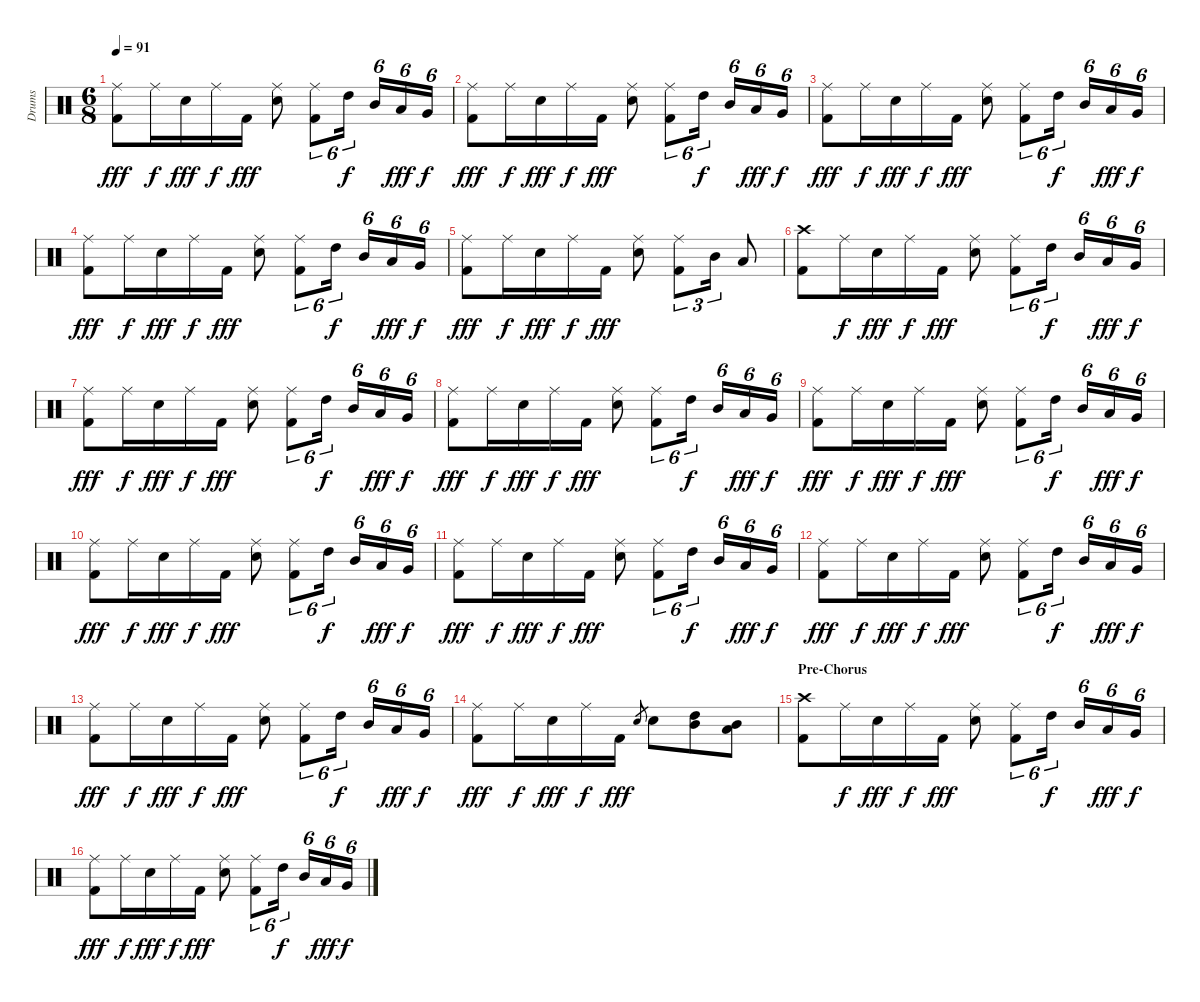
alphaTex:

\track ("Drums" "Drums") {instrument percussion}
\staff {score}
\articulation defaults
\ts (6 8)
\tempo 91
\clef neutral
\ks c
("Ride (middle)" "Kick (hit) 2").8{dy fff} "Ride (middle)".16{dy f} "Electric Snare (hit)".16{dy fff} "Ride (middle)".16{dy f} "Kick (hit) 2".16{dy fff} ("Ride (middle)" "Electric Snare (hit)").8 ("Ride (middle)" "Kick (hit) 2").8{tu (6 4)} "High Tom (hit)".16{tu (6 4) dy f} "Mid Tom (hit)".16{tu (6 4)} "Low Tom (hit)".16{tu (6 4) dy fff} "Very Low Tom (hit)".16{tu (6 4) dy f} |
("Ride (middle)" "Kick (hit) 2").8{dy fff} "Ride (middle)".16{dy f} "Electric Snare (hit)".16{dy fff} "Ride (middle)".16{dy f} "Kick (hit) 2".16{dy fff} ("Ride (middle)" "Electric Snare (hit)").8 ("Ride (middle)" "Kick (hit) 2").8{tu (6 4)} "High Tom (hit)".16{tu (6 4) dy f} "Mid Tom (hit)".16{tu (6 4)} "Low Tom (hit)".16{tu (6 4) dy fff} "Very Low Tom (hit)".16{tu (6 4) dy f} |
("Ride (middle)" "Kick (hit) 2").8{dy fff} "Ride (middle)".16{dy f} "Electric Snare (hit)".16{dy fff} "Ride (middle)".16{dy f} "Kick (hit) 2".16{dy fff} ("Ride (middle)" "Electric Snare (hit)").8 ("Ride (middle)" "Kick (hit) 2").8{tu (6 4)} "High Tom (hit)".16{tu (6 4) dy f} "Mid Tom (hit)".16{tu (6 4)} "Low Tom (hit)".16{tu (6 4) dy fff} "Very Low Tom (hit)".16{tu (6 4) dy f} |
("Ride (middle)" "Kick (hit) 2").8{dy fff} "Ride (middle)".16{dy f} "Electric Snare (hit)".16{dy fff} "Ride (middle)".16{dy f} "Kick (hit) 2".16{dy fff} ("Ride (middle)" "Electric Snare (hit)").8 ("Ride (middle)" "Kick (hit) 2").8{tu (6 4)} "High Tom (hit)".16{tu (6 4) dy f} "Mid Tom (hit)".16{tu (6 4)} "Low Tom (hit)".16{tu (6 4) dy fff} "Very Low Tom (hit)".16{tu (6 4) dy f} |
("Ride (middle)" "Kick (hit) 2").8{dy fff} "Ride (middle)".16{dy f} "Electric Snare (hit)".16{dy fff} "Ride (middle)".16{dy f} "Kick (hit) 2".16{dy fff} ("Ride (middle)" "Electric Snare (hit)").8 ("Ride (middle)" "Kick (hit) 2").8{tu (3 2)} "Mid Tom (hit)".16{tu (3 2)} "Low Tom (hit)".8 |
("Crash high (hit)" "Kick (hit) 2").8 "Ride (middle)".16{dy f} "Electric Snare (hit)".16{dy fff} "Ride (middle)".16{dy f} "Kick (hit) 2".16{dy fff} ("Ride (middle)" "Electric Snare (hit)").8 ("Ride (middle)" "Kick (hit) 2").8{tu (6 4)} "High Tom (hit)".16{tu (6 4) dy f} "Mid Tom (hit)".16{tu (6 4)} "Low Tom (hit)".16{tu (6 4) dy fff} "Very Low Tom (hit)".16{tu (6 4) dy f} |
("Ride (middle)" "Kick (hit) 2").8{dy fff} "Ride (middle)".16{dy f} "Electric Snare (hit)".16{dy fff} "Ride (middle)".16{dy f} "Kick (hit) 2".16{dy fff} ("Ride (middle)" "Electric Snare (hit)").8 ("Ride (middle)" "Kick (hit) 2").8{tu (6 4)} "High Tom (hit)".16{tu (6 4) dy f} "Mid Tom (hit)".16{tu (6 4)} "Low Tom (hit)".16{tu (6 4) dy fff} "Very Low Tom (hit)".16{tu (6 4) dy f} |
("Ride (middle)" "Kick (hit) 2").8{dy fff} "Ride (middle)".16{dy f} "Electric Snare (hit)".16{dy fff} "Ride (middle)".16{dy f} "Kick (hit) 2".16{dy fff} ("Ride (middle)" "Electric Snare (hit)").8 ("Ride (middle)" "Kick (hit) 2").8{tu (6 4)} "High Tom (hit)".16{tu (6 4) dy f} "Mid Tom (hit)".16{tu (6 4)} "Low Tom (hit)".16{tu (6 4) dy fff} "Very Low Tom (hit)".16{tu (6 4) dy f} |
("Ride (middle)" "Kick (hit) 2").8{dy fff} "Ride (middle)".16{dy f} "Electric Snare (hit)".16{dy fff} "Ride (middle)".16{dy f} "Kick (hit) 2".16{dy fff} ("Ride (middle)" "Electric Snare (hit)").8 ("Ride (middle)" "Kick (hit) 2").8{tu (6 4)} "High Tom (hit)".16{tu (6 4) dy f} "Mid Tom (hit)".16{tu (6 4)} "Low Tom (hit)".16{tu (6 4) dy fff} "Very Low Tom (hit)".16{tu (6 4) dy f} |
("Ride (middle)" "Kick (hit) 2").8{dy fff} "Ride (middle)".16{dy f} "Electric Snare (hit)".16{dy fff} "Ride (middle)".16{dy f} "Kick (hit) 2".16{dy fff} ("Ride (middle)" "Electric Snare (hit)").8 ("Ride (middle)" "Kick (hit) 2").8{tu (6 4)} "High Tom (hit)".16{tu (6 4) dy f} "Mid Tom (hit)".16{tu (6 4)} "Low Tom (hit)".16{tu (6 4) dy fff} "Very Low Tom (hit)".16{tu (6 4) dy f} |
("Ride (middle)" "Kick (hit) 2").8{dy fff} "Ride (middle)".16{dy f} "Electric Snare (hit)".16{dy fff} "Ride (middle)".16{dy f} "Kick (hit) 2".16{dy fff} ("Ride (middle)" "Electric Snare (hit)").8 ("Ride (middle)" "Kick (hit) 2").8{tu (6 4)} "High Tom (hit)".16{tu (6 4) dy f} "Mid Tom (hit)".16{tu (6 4)} "Low Tom (hit)".16{tu (6 4) dy fff} "Very Low Tom (hit)".16{tu (6 4) dy f} |
("Ride (middle)" "Kick (hit) 2").8{dy fff} "Ride (middle)".16{dy f} "Electric Snare (hit)".16{dy fff} "Ride (middle)".16{dy f} "Kick (hit) 2".16{dy fff} ("Ride (middle)" "Electric Snare (hit)").8 ("Ride (middle)" "Kick (hit) 2").8{tu (6 4)} "High Tom (hit)".16{tu (6 4) dy f} "Mid Tom (hit)".16{tu (6 4)} "Low Tom (hit)".16{tu (6 4) dy fff} "Very Low Tom (hit)".16{tu (6 4) dy f} |
("Ride (middle)" "Kick (hit) 2").8{dy fff} "Ride (middle)".16{dy f} "Electric Snare (hit)".16{dy fff} "Ride (middle)".16{dy f} "Kick (hit) 2".16{dy fff} ("Ride (middle)" "Electric Snare (hit)").8 ("Ride (middle)" "Kick (hit) 2").8{tu (6 4)} "High Tom (hit)".16{tu (6 4) dy f} "Mid Tom (hit)".16{tu (6 4)} "Low Tom (hit)".16{tu (6 4) dy fff} "Very Low Tom (hit)".16{tu (6 4) dy f} |
("Ride (middle)" "Kick (hit) 2").8{dy fff} "Ride (middle)".16{dy f} "Electric Snare (hit)".16{dy fff} "Ride (middle)".16{dy f} "Kick (hit) 2".16{dy fff} "Electric Snare (hit)".8{gr} "Electric Snare (hit)".8 ("High Tom (hit)" "Mid Tom (hit)").8 ("Mid Tom (hit)" "Low Tom (hit)").8 |
\section ("" "Pre-Chorus")
("Crash high (hit)" "Kick (hit) 2").8 "Ride (middle)".16{dy f} "Electric Snare (hit)".16{dy fff} "Ride (middle)".16{dy f} "Kick (hit) 2".16{dy fff} ("Ride (middle)" "Electric Snare (hit)").8 ("Ride (middle)" "Kick (hit) 2").8{tu (6 4)} "High Tom (hit)".16{tu (6 4) dy f} "Mid Tom (hit)".16{tu (6 4)} "Low Tom (hit)".16{tu (6 4) dy fff} "Very Low Tom (hit)".16{tu (6 4) dy f} |
("Ride (middle)" "Kick (hit) 2").8{dy fff} "Ride (middle)".16{dy f} "Electric Snare (hit)".16{dy fff} "Ride (middle)".16{dy f} "Kick (hit) 2".16{dy fff} ("Ride (middle)" "Electric Snare (hit)").8 ("Ride (middle)" "Kick (hit) 2").8{tu (6 4)} "High Tom (hit)".16{tu (6 4) dy f} "Mid Tom (hit)".16{tu (6 4)} "Low Tom (hit)".16{tu (6 4) dy fff} "Very Low Tom (hit)".16{tu (6 4) dy f}
